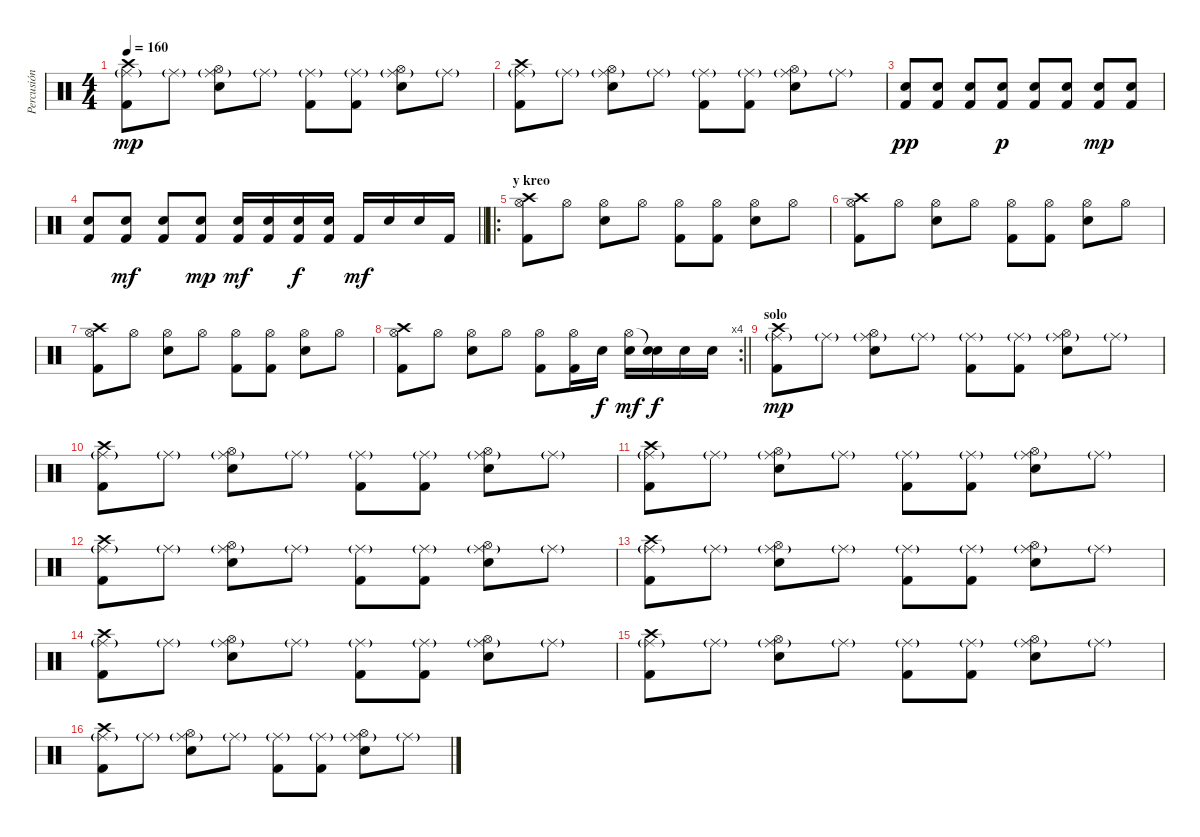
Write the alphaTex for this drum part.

\track ("Percusión" "Percusión") {instrument percussion}
\staff {score}
\articulation defaults
\ts (4 4)
\tempo 160
\clef neutral
\ks c
("Crash high (hit)" "Ride (middle)"{g} "Kick (hit) 2").8{dy mp} "Ride (middle)"{g}.8 ("Hi-Hat (open)" "Ride (middle)"{g} "Electric Snare (hit)").8 "Ride (middle)"{g}.8 ("Ride (middle)"{g} "Kick (hit) 2").8 ("Ride (middle)"{g} "Kick (hit) 2").8 ("Hi-Hat (open)" "Ride (middle)"{g} "Electric Snare (hit)").8 "Ride (middle)"{g}.8 |
("Crash high (hit)" "Ride (middle)"{g} "Kick (hit) 2").8 "Ride (middle)"{g}.8 ("Hi-Hat (open)" "Ride (middle)"{g} "Electric Snare (hit)").8 "Ride (middle)"{g}.8 ("Ride (middle)"{g} "Kick (hit) 2").8 ("Ride (middle)"{g} "Kick (hit) 2").8 ("Hi-Hat (open)" "Ride (middle)"{g} "Electric Snare (hit)").8 "Ride (middle)"{g}.8 |
("Electric Snare (hit)" "Kick (hit) 2").8{dy pp} ("Electric Snare (hit)" "Kick (hit) 2").8 ("Electric Snare (hit)" "Kick (hit) 2").8 ("Electric Snare (hit)" "Kick (hit) 2").8{dy p} ("Electric Snare (hit)" "Kick (hit) 2").8 ("Electric Snare (hit)" "Kick (hit) 2").8 ("Electric Snare (hit)" "Kick (hit) 2").8{dy mp} ("Electric Snare (hit)" "Kick (hit) 2").8 |
\barLineRight lightlight
("Electric Snare (hit)" "Kick (hit) 2").8 ("Electric Snare (hit)" "Kick (hit) 2").8{dy mf} ("Electric Snare (hit)" "Kick (hit) 2").8 ("Electric Snare (hit)" "Kick (hit) 2").8{dy mp} ("Electric Snare (hit)" "Kick (hit) 2").16{dy mf} ("Electric Snare (hit)" "Kick (hit) 2").16 ("Electric Snare (hit)" "Kick (hit) 2").16{dy f} ("Electric Snare (hit)" "Kick (hit) 2").16 "Kick (hit) 2".16{dy mf} "Electric Snare (hit)".16 "Electric Snare (hit)".16 "Kick (hit) 2".16 |
\ro
\section ("" "y kreo")
("Crash high (hit)" "Hi-Hat (open)" "Kick (hit) 2").8 "Hi-Hat (open)".8 ("Hi-Hat (open)" "Electric Snare (hit)").8 "Hi-Hat (open)".8 ("Hi-Hat (open)" "Kick (hit) 2").8 ("Hi-Hat (open)" "Kick (hit) 2").8 ("Hi-Hat (open)" "Electric Snare (hit)").8 "Hi-Hat (open)".8 |
("Crash high (hit)" "Hi-Hat (open)" "Kick (hit) 2").8 "Hi-Hat (open)".8 ("Hi-Hat (open)" "Electric Snare (hit)").8 "Hi-Hat (open)".8 ("Hi-Hat (open)" "Kick (hit) 2").8 ("Hi-Hat (open)" "Kick (hit) 2").8 ("Hi-Hat (open)" "Electric Snare (hit)").8 "Hi-Hat (open)".8 |
("Crash high (hit)" "Hi-Hat (open)" "Kick (hit) 2").8 "Hi-Hat (open)".8 ("Hi-Hat (open)" "Electric Snare (hit)").8 "Hi-Hat (open)".8 ("Hi-Hat (open)" "Kick (hit) 2").8 ("Hi-Hat (open)" "Kick (hit) 2").8 ("Hi-Hat (open)" "Electric Snare (hit)").8 "Hi-Hat (open)".8 |
\rc 4
\barLineRight lightlight
("Crash high (hit)" "Hi-Hat (open)" "Kick (hit) 2").8 "Hi-Hat (open)".8 ("Hi-Hat (open)" "Electric Snare (hit)").8 "Hi-Hat (open)".8 ("Hi-Hat (open)" "Kick (hit) 2").8 ("Hi-Hat (open)" "Kick (hit) 2").16 "Electric Snare (hit)".16{dy f} ("Hi-Hat (open)" "Electric Snare (hit)").16{dy mf} ("Snare (hit)"{t} "Electric Snare (hit)").16{dy f} "Electric Snare (hit)".16 "Electric Snare (hit)".16 |
\section ("" "solo")
("Crash high (hit)" "Ride (middle)"{g} "Kick (hit) 2").8{dy mp} "Ride (middle)"{g}.8 ("Hi-Hat (open)" "Ride (middle)"{g} "Electric Snare (hit)").8 "Ride (middle)"{g}.8 ("Ride (middle)"{g} "Kick (hit) 2").8 ("Ride (middle)"{g} "Kick (hit) 2").8 ("Hi-Hat (open)" "Ride (middle)"{g} "Electric Snare (hit)").8 "Ride (middle)"{g}.8 |
("Crash high (hit)" "Ride (middle)"{g} "Kick (hit) 2").8 "Ride (middle)"{g}.8 ("Hi-Hat (open)" "Ride (middle)"{g} "Electric Snare (hit)").8 "Ride (middle)"{g}.8 ("Ride (middle)"{g} "Kick (hit) 2").8 ("Ride (middle)"{g} "Kick (hit) 2").8 ("Hi-Hat (open)" "Ride (middle)"{g} "Electric Snare (hit)").8 "Ride (middle)"{g}.8 |
("Crash high (hit)" "Ride (middle)"{g} "Kick (hit) 2").8 "Ride (middle)"{g}.8 ("Hi-Hat (open)" "Ride (middle)"{g} "Electric Snare (hit)").8 "Ride (middle)"{g}.8 ("Ride (middle)"{g} "Kick (hit) 2").8 ("Ride (middle)"{g} "Kick (hit) 2").8 ("Hi-Hat (open)" "Ride (middle)"{g} "Electric Snare (hit)").8 "Ride (middle)"{g}.8 |
("Crash high (hit)" "Ride (middle)"{g} "Kick (hit) 2").8 "Ride (middle)"{g}.8 ("Hi-Hat (open)" "Ride (middle)"{g} "Electric Snare (hit)").8 "Ride (middle)"{g}.8 ("Ride (middle)"{g} "Kick (hit) 2").8 ("Ride (middle)"{g} "Kick (hit) 2").8 ("Hi-Hat (open)" "Ride (middle)"{g} "Electric Snare (hit)").8 "Ride (middle)"{g}.8 |
("Crash high (hit)" "Ride (middle)"{g} "Kick (hit) 2").8 "Ride (middle)"{g}.8 ("Hi-Hat (open)" "Ride (middle)"{g} "Electric Snare (hit)").8 "Ride (middle)"{g}.8 ("Ride (middle)"{g} "Kick (hit) 2").8 ("Ride (middle)"{g} "Kick (hit) 2").8 ("Hi-Hat (open)" "Ride (middle)"{g} "Electric Snare (hit)").8 "Ride (middle)"{g}.8 |
("Crash high (hit)" "Ride (middle)"{g} "Kick (hit) 2").8 "Ride (middle)"{g}.8 ("Hi-Hat (open)" "Ride (middle)"{g} "Electric Snare (hit)").8 "Ride (middle)"{g}.8 ("Ride (middle)"{g} "Kick (hit) 2").8 ("Ride (middle)"{g} "Kick (hit) 2").8 ("Hi-Hat (open)" "Ride (middle)"{g} "Electric Snare (hit)").8 "Ride (middle)"{g}.8 |
("Crash high (hit)" "Ride (middle)"{g} "Kick (hit) 2").8 "Ride (middle)"{g}.8 ("Hi-Hat (open)" "Ride (middle)"{g} "Electric Snare (hit)").8 "Ride (middle)"{g}.8 ("Ride (middle)"{g} "Kick (hit) 2").8 ("Ride (middle)"{g} "Kick (hit) 2").8 ("Hi-Hat (open)" "Ride (middle)"{g} "Electric Snare (hit)").8 "Ride (middle)"{g}.8 |
("Crash high (hit)" "Ride (middle)"{g} "Kick (hit) 2").8 "Ride (middle)"{g}.8 ("Hi-Hat (open)" "Ride (middle)"{g} "Electric Snare (hit)").8 "Ride (middle)"{g}.8 ("Ride (middle)"{g} "Kick (hit) 2").8 ("Ride (middle)"{g} "Kick (hit) 2").8 ("Hi-Hat (open)" "Ride (middle)"{g} "Electric Snare (hit)").8 "Ride (middle)"{g}.8
